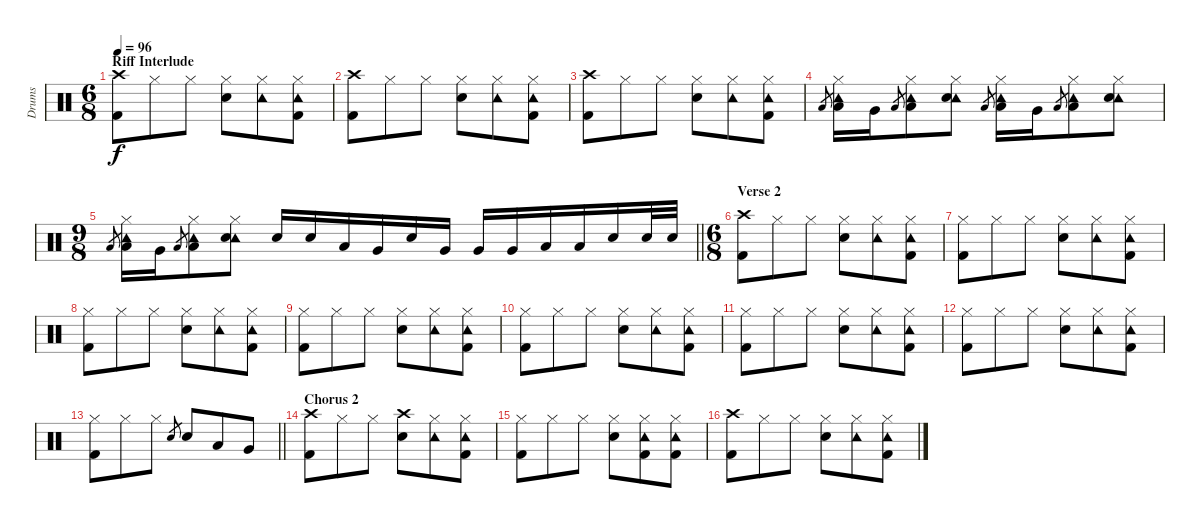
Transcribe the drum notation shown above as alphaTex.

\track ("Drums" "Drums") {instrument percussion}
\staff {score}
\articulation defaults
\ts (6 8)
\section ("" "Riff Interlude")
\tempo 96
\clef neutral
\ks c
("Crash high (hit)" "Kick (hit) 2").8{dy f} "Hi-Hat (closed)".8 "Hi-Hat (closed)".8 ("Hi-Hat (closed)" "Snare (hit) 2").8 ("Hi-Hat (closed)" "Tambourine (hit)").8 ("Hi-Hat (closed)" "Tambourine (hit)" "Kick (hit) 2").8 |
("Crash high (hit)" "Kick (hit) 2").8 "Hi-Hat (closed)".8 "Hi-Hat (closed)".8 ("Hi-Hat (closed)" "Snare (hit) 2").8 ("Hi-Hat (closed)" "Tambourine (hit)").8 ("Hi-Hat (closed)" "Tambourine (hit)" "Kick (hit) 2").8 |
("Crash high (hit)" "Kick (hit) 2").8 "Hi-Hat (closed)".8 "Hi-Hat (closed)".8 ("Hi-Hat (closed)" "Snare (hit) 2").8 ("Hi-Hat (closed)" "Tambourine (hit)").8 ("Hi-Hat (closed)" "Tambourine (hit)" "Kick (hit) 2").8 |
"Low Tom (hit)".8{gr} ("Hi-Hat (closed)" "Tambourine (hit)" "Low Tom (hit)").16 "Very Low Tom (hit)".16 "Low Tom (hit)".8{gr} ("Hi-Hat (closed)" "Tambourine (hit)" "Low Tom (hit)").8 ("Hi-Hat (closed)" "Tambourine (hit)" "Snare (hit) 2").8 "Low Tom (hit)".8{gr} ("Hi-Hat (closed)" "Tambourine (hit)" "Low Tom (hit)").16 "Very Low Tom (hit)".16 "Low Tom (hit)".8{gr} ("Hi-Hat (closed)" "Tambourine (hit)" "Low Tom (hit)").8 ("Hi-Hat (closed)" "Tambourine (hit)" "Snare (hit) 2").8 |
\ts (9 8)
\barLineRight lightlight "Low Tom (hit)".8{gr}
("Hi-Hat (closed)" "Tambourine (hit)" "Low Tom (hit)").16 "Very Low Tom (hit)".16 "Low Tom (hit)".8{gr} ("Hi-Hat (closed)" "Tambourine (hit)" "Low Tom (hit)").8 ("Hi-Hat (closed)" "Tambourine (hit)" "Snare (hit) 2").8 "Snare (hit) 2".16 "Snare (hit) 2".16 "Low Tom (hit)".16 "Very Low Tom (hit)".16 "Snare (hit) 2".16 "Very Low Tom (hit)".16 "Very Low Tom (hit)".16 "Very Low Tom (hit)".16 "Low Tom (hit)".16 "Low Tom (hit)".16 "Snare (hit) 2".16 "Snare (hit) 2".32 "Snare (hit) 2".32 |
\ts (6 8)
\section ("" "Verse 2")
("Crash high (hit)" "Kick (hit) 2").8 "Hi-Hat (closed)".8 "Hi-Hat (closed)".8 ("Hi-Hat (closed)" "Snare (hit) 2").8 ("Hi-Hat (closed)" "Tambourine (hit)").8 ("Hi-Hat (closed)" "Tambourine (hit)" "Kick (hit) 2").8 |
("Hi-Hat (closed)" "Kick (hit) 2").8 "Hi-Hat (closed)".8 "Hi-Hat (closed)".8 ("Hi-Hat (closed)" "Snare (hit) 2").8 ("Hi-Hat (closed)" "Tambourine (hit)").8 ("Hi-Hat (closed)" "Tambourine (hit)" "Kick (hit) 2").8 |
("Hi-Hat (closed)" "Kick (hit) 2").8 "Hi-Hat (closed)".8 "Hi-Hat (closed)".8 ("Hi-Hat (closed)" "Snare (hit) 2").8 ("Hi-Hat (closed)" "Tambourine (hit)").8 ("Hi-Hat (closed)" "Tambourine (hit)" "Kick (hit) 2").8 |
("Hi-Hat (closed)" "Kick (hit) 2").8 "Hi-Hat (closed)".8 "Hi-Hat (closed)".8 ("Hi-Hat (closed)" "Snare (hit) 2").8 ("Hi-Hat (closed)" "Tambourine (hit)").8 ("Hi-Hat (closed)" "Tambourine (hit)" "Kick (hit) 2").8 |
("Hi-Hat (closed)" "Kick (hit) 2").8 "Hi-Hat (closed)".8 "Hi-Hat (closed)".8 ("Hi-Hat (closed)" "Snare (hit) 2").8 ("Hi-Hat (closed)" "Tambourine (hit)").8 ("Hi-Hat (closed)" "Tambourine (hit)" "Kick (hit) 2").8 |
("Hi-Hat (closed)" "Kick (hit) 2").8 "Hi-Hat (closed)".8 "Hi-Hat (closed)".8 ("Hi-Hat (closed)" "Snare (hit) 2").8 ("Hi-Hat (closed)" "Tambourine (hit)").8 ("Hi-Hat (closed)" "Tambourine (hit)" "Kick (hit) 2").8 |
("Hi-Hat (closed)" "Kick (hit) 2").8 "Hi-Hat (closed)".8 "Hi-Hat (closed)".8 ("Hi-Hat (closed)" "Snare (hit) 2").8 ("Hi-Hat (closed)" "Tambourine (hit)").8 ("Hi-Hat (closed)" "Tambourine (hit)" "Kick (hit) 2").8 |
\barLineRight lightlight
("Hi-Hat (closed)" "Kick (hit) 2").8 "Hi-Hat (closed)".8 "Hi-Hat (closed)".8 "Snare (hit) 2".8{gr} "Snare (hit) 2".8 "Low Tom (hit)".8 "Very Low Tom (hit)".8 |
\section ("" "Chorus 2")
("Crash high (hit)" "Kick (hit) 2").8 "Hi-Hat (closed)".8 "Hi-Hat (closed)".8 ("Crash high (hit)" "Snare (hit) 2").8 ("Hi-Hat (closed)" "Tambourine (hit)").8 ("Hi-Hat (closed)" "Tambourine (hit)" "Kick (hit) 2").8 |
("Hi-Hat (closed)" "Kick (hit) 2").8 "Hi-Hat (closed)".8 "Hi-Hat (closed)".8 ("Hi-Hat (closed)" "Snare (hit) 2").8 ("Hi-Hat (closed)" "Tambourine (hit)" "Kick (hit) 2").8 ("Hi-Hat (closed)" "Tambourine (hit)" "Kick (hit) 2").8 |
("Crash high (hit)" "Kick (hit) 2").8 "Hi-Hat (closed)".8 "Hi-Hat (closed)".8 ("Hi-Hat (closed)" "Snare (hit) 2").8 ("Hi-Hat (closed)" "Tambourine (hit)").8 ("Hi-Hat (closed)" "Tambourine (hit)" "Kick (hit) 2").8
